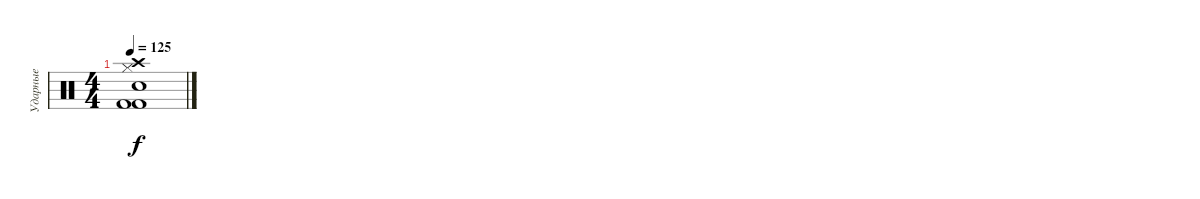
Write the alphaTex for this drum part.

\track ("Ударные" "Ударные") {instrument percussion}
\staff {score}
\articulation defaults
\ts (4 4)
\tempo 125
\clef neutral
\ks c
("Kick (hit) 2" "Hi-Hat (closed)" "Snare (hit) 2" "Crash high (hit)" "Kick (hit) 2").1{dy f}
